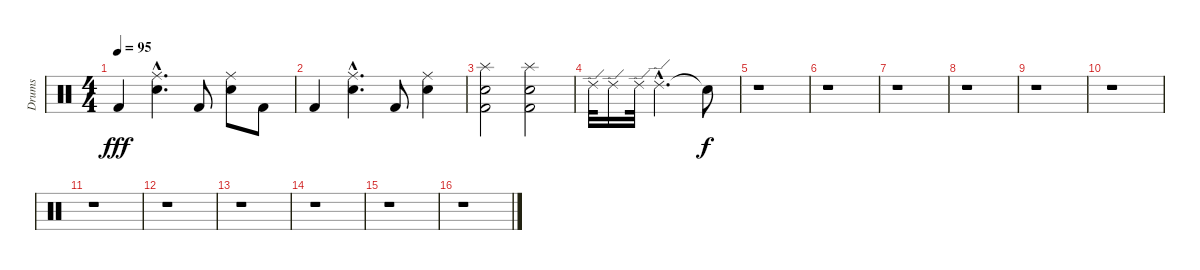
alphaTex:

\track ("Drums" "Drums") {instrument percussion}
\staff {score}
\articulation defaults
\ts (4 4)
\tempo 95
\clef neutral
\ks c "Kick (hit) 2".4{dy fff}
("Ride (middle)"{hac} "Snare (hit) 2"{hac}).4{d} "Kick (hit) 2".8 ("Ride (middle)" "Snare (hit) 2").8 "Kick (hit) 2".8 |
"Kick (hit) 2".4 ("Ride (middle)"{hac} "Snare (hit) 2"{hac}).4{d} "Kick (hit) 2".8 ("Ride (middle)" "Snare (hit) 2").4 |
("Splash (hit)" "Snare (hit) 2" "Kick (hit) 2").2 ("Splash (hit)" "Snare (hit) 2" "Kick (hit) 2").2 |
"Ride (edge) 2".32 "Ride (edge) 2".16 "Ride (edge) 2".32 "Ride (edge) 2"{hac}.2{d} "Snare (hit)"{t}.8{dy f} |
r.1 |
r.1 |
r.1 |
r.1 |
r.1 |
r.1 |
r.1 |
r.1 |
r.1 |
r.1 |
r.1 |
r.1
